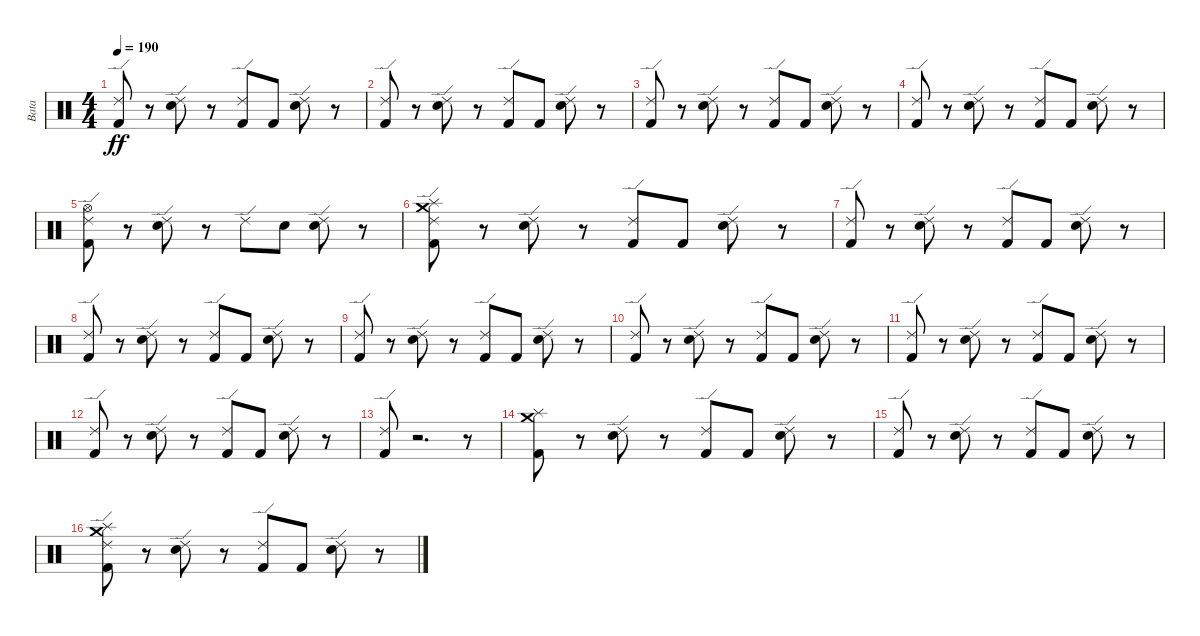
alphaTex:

\track ("Bata" "Bata") {instrument percussion}
\staff {score}
\articulation defaults
\ts (4 4)
\tempo 190
\clef neutral
\ks c
("Kick (hit) 2" "Ride (edge) 2").8{dy ff} r.8 ("Snare (hit) 2" "Ride (edge) 2").8 r.8 ("Ride (edge) 2" "Kick (hit) 2").8 "Kick (hit) 2".8 ("Snare (hit) 2" "Ride (edge) 2").8 r.8 |
("Kick (hit) 2" "Ride (edge) 2").8 r.8 ("Ride (edge) 2" "Snare (hit) 2").8 r.8 ("Ride (edge) 2" "Kick (hit) 2").8 "Kick (hit) 2".8 ("Snare (hit) 2" "Ride (edge) 2").8 r.8 |
("Kick (hit) 2" "Ride (edge) 2").8 r.8 ("Ride (edge) 2" "Snare (hit) 2").8 r.8 ("Kick (hit) 2" "Ride (edge) 2").8 "Kick (hit) 2".8 ("Snare (hit) 2" "Ride (edge) 2").8 r.8 |
("Ride (edge) 2" "Kick (hit) 2").8 r.8 ("Ride (edge) 2" "Snare (hit) 2").8 r.8 ("Kick (hit) 2" "Ride (edge) 2").8 "Kick (hit) 2".8 ("Ride (edge) 2" "Snare (hit) 2").8 r.8 |
("Ride (edge) 2" "Hi-Hat (open)" "Kick (hit) 2").8 r.8 ("Ride (edge) 2" "Snare (hit) 2").8 r.8 "Ride (edge) 2".8 "Snare (hit) 2".8 ("Snare (hit) 2" "Ride (edge) 2").8 r.8 |
("Kick (hit) 2" "Ride (edge) 2" "Crash medium (hit)" "Splash (hit)").8 r.8 ("Snare (hit) 2" "Ride (edge) 2").8 r.8 ("Ride (edge) 2" "Kick (hit) 2").8 "Kick (hit) 2".8 ("Ride (edge) 2" "Snare (hit) 2").8 r.8 |
("Kick (hit) 2" "Ride (edge) 2").8 r.8 ("Snare (hit) 2" "Ride (edge) 2").8 r.8 ("Ride (edge) 2" "Kick (hit) 2").8 "Kick (hit) 2".8 ("Snare (hit) 2" "Ride (edge) 2").8 r.8 |
("Kick (hit) 2" "Ride (edge) 2").8 r.8 ("Ride (edge) 2" "Snare (hit) 2").8 r.8 ("Ride (edge) 2" "Kick (hit) 2").8 "Kick (hit) 2".8 ("Snare (hit) 2" "Ride (edge) 2").8 r.8 |
("Ride (edge) 2" "Kick (hit) 2").8 r.8 ("Ride (edge) 2" "Snare (hit) 2").8 r.8 ("Kick (hit) 2" "Ride (edge) 2").8 "Kick (hit) 2".8 ("Snare (hit) 2" "Ride (edge) 2").8 r.8 |
("Ride (edge) 2" "Kick (hit) 2").8 r.8 ("Snare (hit) 2" "Ride (edge) 2").8 r.8 ("Kick (hit) 2" "Ride (edge) 2").8 "Kick (hit) 2".8 ("Ride (edge) 2" "Snare (hit) 2").8 r.8 |
("Ride (edge) 2" "Kick (hit) 2").8 r.8 ("Snare (hit) 2" "Ride (edge) 2").8 r.8 ("Ride (edge) 2" "Kick (hit) 2").8 "Kick (hit) 2".8 ("Ride (edge) 2" "Snare (hit) 2").8 r.8 |
("Kick (hit) 2" "Ride (edge) 2").8 r.8 ("Snare (hit) 2" "Ride (edge) 2").8 r.8 ("Ride (edge) 2" "Kick (hit) 2").8 "Kick (hit) 2".8 ("Ride (edge) 2" "Snare (hit) 2").8 r.8 |
("Kick (hit) 2" "Ride (edge) 2").8 r.2{d} r.8 |
("Kick (hit) 2" "Splash (hit)" "Crash medium (hit)").8 r.8 ("Snare (hit) 2" "Ride (edge) 2").8 r.8 ("Ride (edge) 2" "Kick (hit) 2").8 "Kick (hit) 2".8 ("Ride (edge) 2" "Snare (hit) 2").8 r.8 |
("Kick (hit) 2" "Ride (edge) 2").8 r.8 ("Ride (edge) 2" "Snare (hit) 2").8 r.8 ("Ride (edge) 2" "Kick (hit) 2").8 "Kick (hit) 2".8 ("Snare (hit) 2" "Ride (edge) 2").8 r.8 |
("Kick (hit) 2" "Ride (edge) 2" "Splash (hit)" "Crash medium (hit)").8 r.8 ("Ride (edge) 2" "Snare (hit) 2").8 r.8 ("Kick (hit) 2" "Ride (edge) 2").8 "Kick (hit) 2".8 ("Snare (hit) 2" "Ride (edge) 2").8 r.8
